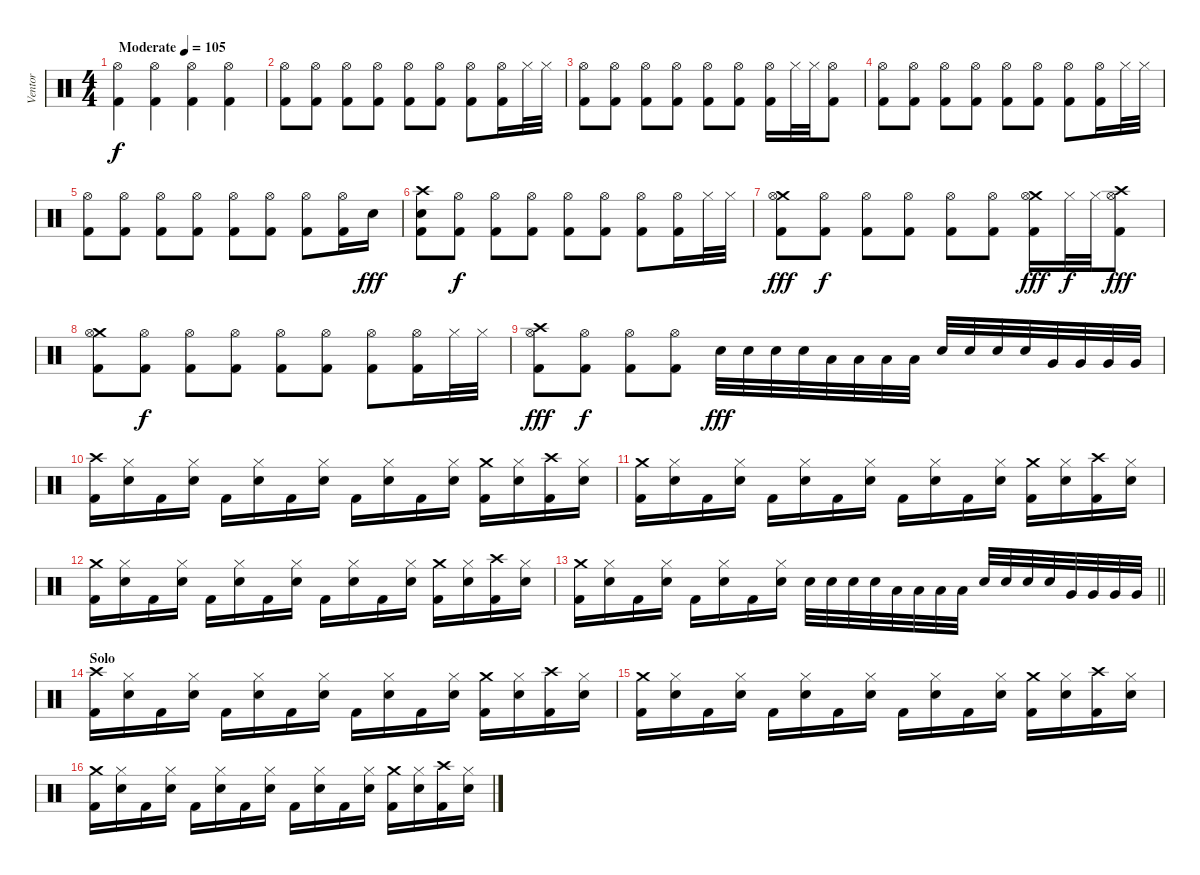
\track ("Ventor" "Ventor") {instrument percussion}
\staff {score}
\articulation defaults
\ts (4 4)
\tempo (105 "Moderate")
\clef neutral
\ks c
("Hi-Hat (open)" "Kick (hit) 2").4{dy f} ("Hi-Hat (open)" "Kick (hit) 2").4 ("Hi-Hat (open)" "Kick (hit) 2").4 ("Hi-Hat (open)" "Kick (hit) 2").4 |
("Hi-Hat (open)" "Kick (hit) 2").8 ("Hi-Hat (open)" "Kick (hit) 2").8 ("Hi-Hat (open)" "Kick (hit) 2").8 ("Hi-Hat (open)" "Kick (hit) 2").8 ("Hi-Hat (open)" "Kick (hit) 2").8 ("Hi-Hat (open)" "Kick (hit) 2").8 ("Hi-Hat (open)" "Kick (hit) 2").8 ("Hi-Hat (open)" "Kick (hit) 2").16 "Hi-Hat (closed)".32 "Hi-Hat (closed)".32 |
("Hi-Hat (open)" "Kick (hit) 2").8 ("Hi-Hat (open)" "Kick (hit) 2").8 ("Hi-Hat (open)" "Kick (hit) 2").8 ("Hi-Hat (open)" "Kick (hit) 2").8 ("Hi-Hat (open)" "Kick (hit) 2").8 ("Hi-Hat (open)" "Kick (hit) 2").8 ("Hi-Hat (open)" "Kick (hit) 2").16 "Hi-Hat (closed)".32 "Hi-Hat (closed)".32 ("Hi-Hat (open)" "Kick (hit) 2").8 |
("Hi-Hat (open)" "Kick (hit) 2").8 ("Hi-Hat (open)" "Kick (hit) 2").8 ("Hi-Hat (open)" "Kick (hit) 2").8 ("Hi-Hat (open)" "Kick (hit) 2").8 ("Hi-Hat (open)" "Kick (hit) 2").8 ("Hi-Hat (open)" "Kick (hit) 2").8 ("Hi-Hat (open)" "Kick (hit) 2").8 ("Hi-Hat (open)" "Kick (hit) 2").16 "Hi-Hat (closed)".32 "Hi-Hat (closed)".32 |
("Hi-Hat (open)" "Kick (hit) 2").8 ("Hi-Hat (open)" "Kick (hit) 2").8 ("Hi-Hat (open)" "Kick (hit) 2").8 ("Hi-Hat (open)" "Kick (hit) 2").8 ("Hi-Hat (open)" "Kick (hit) 2").8 ("Hi-Hat (open)" "Kick (hit) 2").8 ("Hi-Hat (open)" "Kick (hit) 2").8 ("Hi-Hat (open)" "Kick (hit) 2").16 "Electric Snare (hit)".16{dy fff} |
("Crash high (hit)" "Electric Snare (hit)" "Kick (hit) 2").8 ("Hi-Hat (open)" "Kick (hit) 2").8{dy f} ("Hi-Hat (open)" "Kick (hit) 2").8 ("Hi-Hat (open)" "Kick (hit) 2").8 ("Hi-Hat (open)" "Kick (hit) 2").8 ("Hi-Hat (open)" "Kick (hit) 2").8 ("Hi-Hat (open)" "Kick (hit) 2").8 ("Hi-Hat (open)" "Kick (hit) 2").16 "Hi-Hat (closed)".32 "Hi-Hat (closed)".32 |
("Crash medium (hit)" "Hi-Hat (open)" "Kick (hit) 2").8{dy fff} ("Hi-Hat (open)" "Kick (hit) 2").8{dy f} ("Hi-Hat (open)" "Kick (hit) 2").8 ("Hi-Hat (open)" "Kick (hit) 2").8 ("Hi-Hat (open)" "Kick (hit) 2").8 ("Hi-Hat (open)" "Kick (hit) 2").8 ("Crash medium (hit)" "Hi-Hat (open)" "Kick (hit) 2").16{dy fff} "Hi-Hat (closed)".32{dy f} "Hi-Hat (closed)".32 ("Crash high (hit)" "Hi-Hat (open)" "Kick (hit) 2").8{dy fff} |
("Crash medium (hit)" "Hi-Hat (open)" "Kick (hit) 2").8 ("Hi-Hat (open)" "Kick (hit) 2").8{dy f} ("Hi-Hat (open)" "Kick (hit) 2").8 ("Hi-Hat (open)" "Kick (hit) 2").8 ("Hi-Hat (open)" "Kick (hit) 2").8 ("Hi-Hat (open)" "Kick (hit) 2").8 ("Hi-Hat (open)" "Kick (hit) 2").8 ("Hi-Hat (open)" "Kick (hit) 2").16 "Hi-Hat (closed)".32 "Hi-Hat (closed)".32 |
("Crash high (hit)" "Hi-Hat (open)" "Kick (hit) 2").8{dy fff} ("Hi-Hat (open)" "Kick (hit) 2").8{dy f} ("Hi-Hat (open)" "Kick (hit) 2").8 ("Hi-Hat (open)" "Kick (hit) 2").8 "Electric Snare (hit)".32{dy fff} "Electric Snare (hit)".32 "Electric Snare (hit)".32 "Electric Snare (hit)".32 "Low Tom (hit)".32 "Low Tom (hit)".32 "Low Tom (hit)".32 "Low Tom (hit)".32 "Electric Snare (hit)".32 "Electric Snare (hit)".32 "Electric Snare (hit)".32 "Electric Snare (hit)".32 "Very Low Tom (hit)".32 "Very Low Tom (hit)".32 "Very Low Tom (hit)".32 "Very Low Tom (hit)".32 |
("Crash high (hit)" "Kick (hit) 2").16 ("Hi-Hat (closed)" "Electric Snare (hit)").16 "Kick (hit) 2".16 ("Hi-Hat (closed)" "Electric Snare (hit)").16 "Kick (hit) 2".16 ("Hi-Hat (closed)" "Electric Snare (hit)").16 "Kick (hit) 2".16 ("Hi-Hat (closed)" "Electric Snare (hit)").16 "Kick (hit) 2".16 ("Hi-Hat (closed)" "Electric Snare (hit)").16 "Kick (hit) 2".16 ("Hi-Hat (closed)" "Electric Snare (hit)").16 ("Crash medium (hit)" "Kick (hit) 2").16 ("Hi-Hat (closed)" "Electric Snare (hit)").16 ("Crash high (hit)" "Kick (hit) 2").16 ("Hi-Hat (closed)" "Electric Snare (hit)").16 |
("Crash medium (hit)" "Kick (hit) 2").16 ("Hi-Hat (closed)" "Electric Snare (hit)").16 "Kick (hit) 2".16 ("Hi-Hat (closed)" "Electric Snare (hit)").16 "Kick (hit) 2".16 ("Hi-Hat (closed)" "Electric Snare (hit)").16 "Kick (hit) 2".16 ("Hi-Hat (closed)" "Electric Snare (hit)").16 "Kick (hit) 2".16 ("Hi-Hat (closed)" "Electric Snare (hit)").16 "Kick (hit) 2".16 ("Hi-Hat (closed)" "Electric Snare (hit)").16 ("Crash medium (hit)" "Kick (hit) 2").16 ("Hi-Hat (closed)" "Electric Snare (hit)").16 ("Crash high (hit)" "Kick (hit) 2").16 ("Hi-Hat (closed)" "Electric Snare (hit)").16 |
("Crash medium (hit)" "Kick (hit) 2").16 ("Hi-Hat (closed)" "Electric Snare (hit)").16 "Kick (hit) 2".16 ("Hi-Hat (closed)" "Electric Snare (hit)").16 "Kick (hit) 2".16 ("Hi-Hat (closed)" "Electric Snare (hit)").16 "Kick (hit) 2".16 ("Hi-Hat (closed)" "Electric Snare (hit)").16 "Kick (hit) 2".16 ("Hi-Hat (closed)" "Electric Snare (hit)").16 "Kick (hit) 2".16 ("Hi-Hat (closed)" "Electric Snare (hit)").16 ("Crash medium (hit)" "Kick (hit) 2").16 ("Hi-Hat (closed)" "Electric Snare (hit)").16 ("Crash high (hit)" "Kick (hit) 2").16 ("Hi-Hat (closed)" "Electric Snare (hit)").16 |
\barLineRight lightlight
("Crash medium (hit)" "Kick (hit) 2").16 ("Hi-Hat (closed)" "Electric Snare (hit)").16 "Kick (hit) 2".16 ("Hi-Hat (closed)" "Electric Snare (hit)").16 "Kick (hit) 2".16 ("Hi-Hat (closed)" "Electric Snare (hit)").16 "Kick (hit) 2".16 ("Hi-Hat (closed)" "Electric Snare (hit)").16 "Electric Snare (hit)".32 "Electric Snare (hit)".32 "Electric Snare (hit)".32 "Electric Snare (hit)".32 "Low Tom (hit)".32 "Low Tom (hit)".32 "Low Tom (hit)".32 "Low Tom (hit)".32 "Electric Snare (hit)".32 "Electric Snare (hit)".32 "Electric Snare (hit)".32 "Electric Snare (hit)".32 "Very Low Tom (hit)".32 "Very Low Tom (hit)".32 "Very Low Tom (hit)".32 "Very Low Tom (hit)".32 |
\section ("" "Solo")
("Crash high (hit)" "Kick (hit) 2").16 ("Hi-Hat (closed)" "Electric Snare (hit)").16 "Kick (hit) 2".16 ("Hi-Hat (closed)" "Electric Snare (hit)").16 "Kick (hit) 2".16 ("Hi-Hat (closed)" "Electric Snare (hit)").16 "Kick (hit) 2".16 ("Hi-Hat (closed)" "Electric Snare (hit)").16 "Kick (hit) 2".16 ("Hi-Hat (closed)" "Electric Snare (hit)").16 "Kick (hit) 2".16 ("Hi-Hat (closed)" "Electric Snare (hit)").16 ("Crash medium (hit)" "Kick (hit) 2").16 ("Hi-Hat (closed)" "Electric Snare (hit)").16 ("Crash high (hit)" "Kick (hit) 2").16 ("Hi-Hat (closed)" "Electric Snare (hit)").16 |
("Crash medium (hit)" "Kick (hit) 2").16 ("Hi-Hat (closed)" "Electric Snare (hit)").16 "Kick (hit) 2".16 ("Hi-Hat (closed)" "Electric Snare (hit)").16 "Kick (hit) 2".16 ("Hi-Hat (closed)" "Electric Snare (hit)").16 "Kick (hit) 2".16 ("Hi-Hat (closed)" "Electric Snare (hit)").16 "Kick (hit) 2".16 ("Hi-Hat (closed)" "Electric Snare (hit)").16 "Kick (hit) 2".16 ("Hi-Hat (closed)" "Electric Snare (hit)").16 ("Crash medium (hit)" "Kick (hit) 2").16 ("Hi-Hat (closed)" "Electric Snare (hit)").16 ("Crash high (hit)" "Kick (hit) 2").16 ("Hi-Hat (closed)" "Electric Snare (hit)").16 |
("Crash medium (hit)" "Kick (hit) 2").16 ("Hi-Hat (closed)" "Electric Snare (hit)").16 "Kick (hit) 2".16 ("Hi-Hat (closed)" "Electric Snare (hit)").16 "Kick (hit) 2".16 ("Hi-Hat (closed)" "Electric Snare (hit)").16 "Kick (hit) 2".16 ("Hi-Hat (closed)" "Electric Snare (hit)").16 "Kick (hit) 2".16 ("Hi-Hat (closed)" "Electric Snare (hit)").16 "Kick (hit) 2".16 ("Hi-Hat (closed)" "Electric Snare (hit)").16 ("Crash medium (hit)" "Kick (hit) 2").16 ("Hi-Hat (closed)" "Electric Snare (hit)").16 ("Crash high (hit)" "Kick (hit) 2").16 ("Hi-Hat (closed)" "Electric Snare (hit)").16
